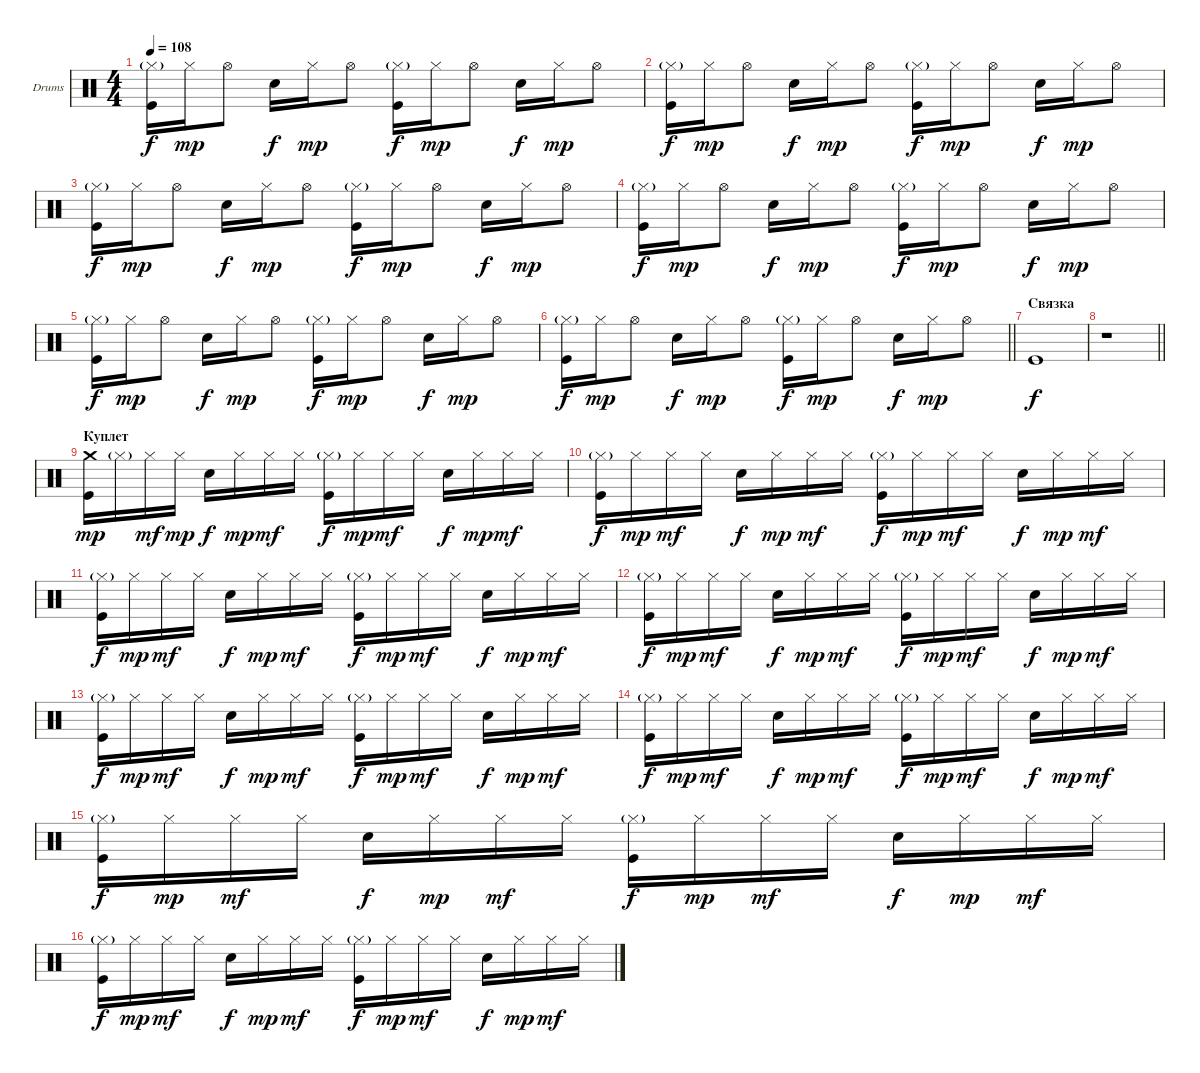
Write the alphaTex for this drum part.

\bracketExtendMode groupsimilarinstruments
\firstSystemTrackNameOrientation horizontal
\otherSystemsTrackNameOrientation horizontal
\track ("Е. Кулаков" "Drums") {instrument percussion}
\staff {score}
\articulation defaults
\ts (4 4)
\tempo 108
\clef neutral
\ks c
("Hi-Hat (closed)"{g} "Kick (hit)").16{dy f} "Hi-Hat (closed)".16{dy mp} "Hi-Hat (open)".8 "Snare (hit) 2".16{dy f} "Hi-Hat (closed)".16{dy mp} "Hi-Hat (open)".8 ("Hi-Hat (closed)"{g} "Kick (hit)").16{dy f} "Hi-Hat (closed)".16{dy mp} "Hi-Hat (open)".8 "Snare (hit) 2".16{dy f} "Hi-Hat (closed)".16{dy mp} "Hi-Hat (open)".8 |
("Hi-Hat (closed)"{g} "Kick (hit)").16{dy f} "Hi-Hat (closed)".16{dy mp} "Hi-Hat (open)".8 "Snare (hit) 2".16{dy f} "Hi-Hat (closed)".16{dy mp} "Hi-Hat (open)".8 ("Hi-Hat (closed)"{g} "Kick (hit)").16{dy f} "Hi-Hat (closed)".16{dy mp} "Hi-Hat (open)".8 "Snare (hit) 2".16{dy f} "Hi-Hat (closed)".16{dy mp} "Hi-Hat (open)".8 |
("Hi-Hat (closed)"{g} "Kick (hit)").16{dy f} "Hi-Hat (closed)".16{dy mp} "Hi-Hat (open)".8 "Snare (hit) 2".16{dy f} "Hi-Hat (closed)".16{dy mp} "Hi-Hat (open)".8 ("Hi-Hat (closed)"{g} "Kick (hit)").16{dy f} "Hi-Hat (closed)".16{dy mp} "Hi-Hat (open)".8 "Snare (hit) 2".16{dy f} "Hi-Hat (closed)".16{dy mp} "Hi-Hat (open)".8 |
("Hi-Hat (closed)"{g} "Kick (hit)").16{dy f} "Hi-Hat (closed)".16{dy mp} "Hi-Hat (open)".8 "Snare (hit) 2".16{dy f} "Hi-Hat (closed)".16{dy mp} "Hi-Hat (open)".8 ("Hi-Hat (closed)"{g} "Kick (hit)").16{dy f} "Hi-Hat (closed)".16{dy mp} "Hi-Hat (open)".8 "Snare (hit) 2".16{dy f} "Hi-Hat (closed)".16{dy mp} "Hi-Hat (open)".8 |
("Hi-Hat (closed)"{g} "Kick (hit)").16{dy f} "Hi-Hat (closed)".16{dy mp} "Hi-Hat (open)".8 "Snare (hit) 2".16{dy f} "Hi-Hat (closed)".16{dy mp} "Hi-Hat (open)".8 ("Hi-Hat (closed)"{g} "Kick (hit)").16{dy f} "Hi-Hat (closed)".16{dy mp} "Hi-Hat (open)".8 "Snare (hit) 2".16{dy f} "Hi-Hat (closed)".16{dy mp} "Hi-Hat (open)".8 |
\barLineRight lightlight
("Hi-Hat (closed)"{g} "Kick (hit)").16{dy f} "Hi-Hat (closed)".16{dy mp} "Hi-Hat (open)".8 "Snare (hit) 2".16{dy f} "Hi-Hat (closed)".16{dy mp} "Hi-Hat (open)".8 ("Hi-Hat (closed)"{g} "Kick (hit)").16{dy f} "Hi-Hat (closed)".16{dy mp} "Hi-Hat (open)".8 "Snare (hit) 2".16{dy f} "Hi-Hat (closed)".16{dy mp} "Hi-Hat (open)".8 |
\section ("" "Связка")
"Kick (hit)".1{dy f} |
\barLineRight lightlight
r.1 |
\section ("" "Куплет")
("Crash medium (hit)" "Kick (hit)").16{dy mp} "Hi-Hat (closed)"{g}.16 "Hi-Hat (closed)".16{dy mf} "Hi-Hat (closed)".16{dy mp} "Snare (hit) 2".16{dy f} "Hi-Hat (closed)".16{dy mp} "Hi-Hat (closed)".16{dy mf} "Hi-Hat (closed)".16 ("Hi-Hat (closed)"{g} "Kick (hit)").16{dy f} "Hi-Hat (closed)".16{dy mp} "Hi-Hat (closed)".16{dy mf} "Hi-Hat (closed)".16 "Snare (hit) 2".16{dy f} "Hi-Hat (closed)".16{dy mp} "Hi-Hat (closed)".16{dy mf} "Hi-Hat (closed)".16 |
("Hi-Hat (closed)"{g} "Kick (hit)").16{dy f} "Hi-Hat (closed)".16{dy mp} "Hi-Hat (closed)".16{dy mf} "Hi-Hat (closed)".16 "Snare (hit) 2".16{dy f} "Hi-Hat (closed)".16{dy mp} "Hi-Hat (closed)".16{dy mf} "Hi-Hat (closed)".16 ("Hi-Hat (closed)"{g} "Kick (hit)").16{dy f} "Hi-Hat (closed)".16{dy mp} "Hi-Hat (closed)".16{dy mf} "Hi-Hat (closed)".16 "Snare (hit) 2".16{dy f} "Hi-Hat (closed)".16{dy mp} "Hi-Hat (closed)".16{dy mf} "Hi-Hat (closed)".16 |
("Hi-Hat (closed)"{g} "Kick (hit)").16{dy f} "Hi-Hat (closed)".16{dy mp} "Hi-Hat (closed)".16{dy mf} "Hi-Hat (closed)".16 "Snare (hit) 2".16{dy f} "Hi-Hat (closed)".16{dy mp} "Hi-Hat (closed)".16{dy mf} "Hi-Hat (closed)".16 ("Hi-Hat (closed)"{g} "Kick (hit)").16{dy f} "Hi-Hat (closed)".16{dy mp} "Hi-Hat (closed)".16{dy mf} "Hi-Hat (closed)".16 "Snare (hit) 2".16{dy f} "Hi-Hat (closed)".16{dy mp} "Hi-Hat (closed)".16{dy mf} "Hi-Hat (closed)".16 |
("Hi-Hat (closed)"{g} "Kick (hit)").16{dy f} "Hi-Hat (closed)".16{dy mp} "Hi-Hat (closed)".16{dy mf} "Hi-Hat (closed)".16 "Snare (hit) 2".16{dy f} "Hi-Hat (closed)".16{dy mp} "Hi-Hat (closed)".16{dy mf} "Hi-Hat (closed)".16 ("Hi-Hat (closed)"{g} "Kick (hit)").16{dy f} "Hi-Hat (closed)".16{dy mp} "Hi-Hat (closed)".16{dy mf} "Hi-Hat (closed)".16 "Snare (hit) 2".16{dy f} "Hi-Hat (closed)".16{dy mp} "Hi-Hat (closed)".16{dy mf} "Hi-Hat (closed)".16 |
("Hi-Hat (closed)"{g} "Kick (hit)").16{dy f} "Hi-Hat (closed)".16{dy mp} "Hi-Hat (closed)".16{dy mf} "Hi-Hat (closed)".16 "Snare (hit) 2".16{dy f} "Hi-Hat (closed)".16{dy mp} "Hi-Hat (closed)".16{dy mf} "Hi-Hat (closed)".16 ("Hi-Hat (closed)"{g} "Kick (hit)").16{dy f} "Hi-Hat (closed)".16{dy mp} "Hi-Hat (closed)".16{dy mf} "Hi-Hat (closed)".16 "Snare (hit) 2".16{dy f} "Hi-Hat (closed)".16{dy mp} "Hi-Hat (closed)".16{dy mf} "Hi-Hat (closed)".16 |
("Hi-Hat (closed)"{g} "Kick (hit)").16{dy f} "Hi-Hat (closed)".16{dy mp} "Hi-Hat (closed)".16{dy mf} "Hi-Hat (closed)".16 "Snare (hit) 2".16{dy f} "Hi-Hat (closed)".16{dy mp} "Hi-Hat (closed)".16{dy mf} "Hi-Hat (closed)".16 ("Hi-Hat (closed)"{g} "Kick (hit)").16{dy f} "Hi-Hat (closed)".16{dy mp} "Hi-Hat (closed)".16{dy mf} "Hi-Hat (closed)".16 "Snare (hit) 2".16{dy f} "Hi-Hat (closed)".16{dy mp} "Hi-Hat (closed)".16{dy mf} "Hi-Hat (closed)".16 |
("Hi-Hat (closed)"{g} "Kick (hit)").16{dy f} "Hi-Hat (closed)".16{dy mp} "Hi-Hat (closed)".16{dy mf} "Hi-Hat (closed)".16 "Snare (hit) 2".16{dy f} "Hi-Hat (closed)".16{dy mp} "Hi-Hat (closed)".16{dy mf} "Hi-Hat (closed)".16 ("Hi-Hat (closed)"{g} "Kick (hit)").16{dy f} "Hi-Hat (closed)".16{dy mp} "Hi-Hat (closed)".16{dy mf} "Hi-Hat (closed)".16 "Snare (hit) 2".16{dy f} "Hi-Hat (closed)".16{dy mp} "Hi-Hat (closed)".16{dy mf} "Hi-Hat (closed)".16 |
("Hi-Hat (closed)"{g} "Kick (hit)").16{dy f} "Hi-Hat (closed)".16{dy mp} "Hi-Hat (closed)".16{dy mf} "Hi-Hat (closed)".16 "Snare (hit) 2".16{dy f} "Hi-Hat (closed)".16{dy mp} "Hi-Hat (closed)".16{dy mf} "Hi-Hat (closed)".16 ("Hi-Hat (closed)"{g} "Kick (hit)").16{dy f} "Hi-Hat (closed)".16{dy mp} "Hi-Hat (closed)".16{dy mf} "Hi-Hat (closed)".16 "Snare (hit) 2".16{dy f} "Hi-Hat (closed)".16{dy mp} "Hi-Hat (closed)".16{dy mf} "Hi-Hat (closed)".16
